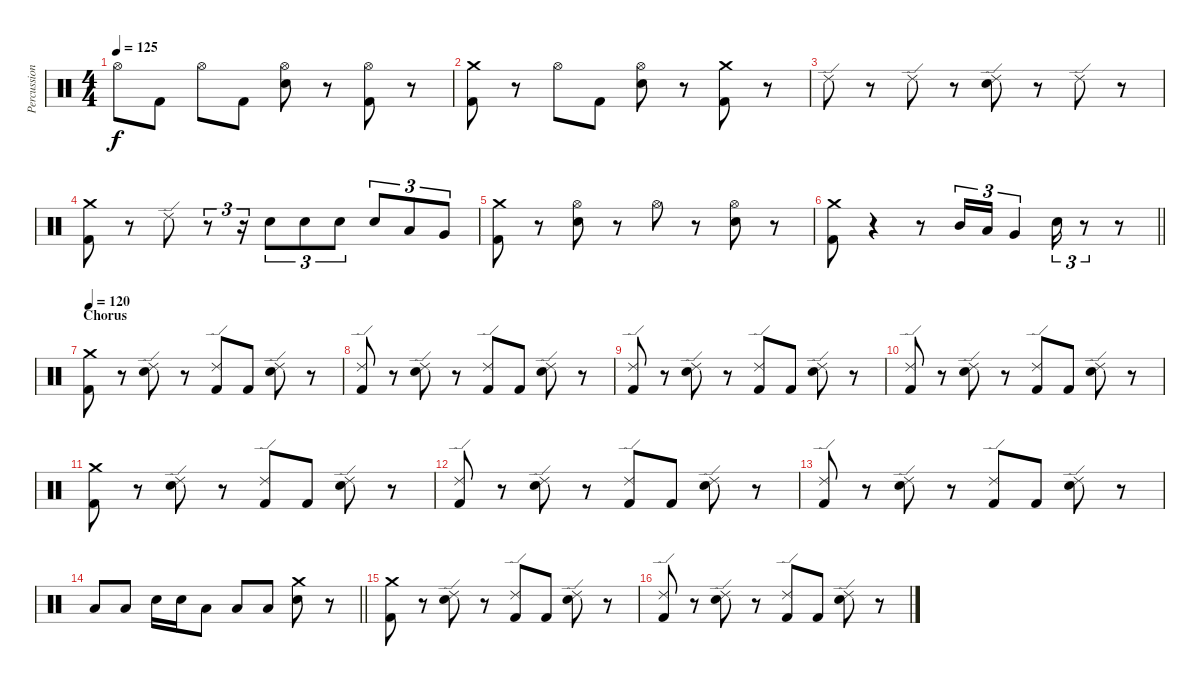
\track ("Percussion" "Percussion") {instrument percussion}
\staff {score}
\articulation defaults
\ts (4 4)
\tempo 125
\clef neutral
\ks c "Hi-Hat (open)".8{dy f} "Kick (hit) 2".8 "Hi-Hat (open)".8 "Kick (hit) 2".8
("Hi-Hat (open)" "Electric Snare (hit)").8 r.8 ("Hi-Hat (open)" "Kick (hit) 2").8 r.8 |
("Crash medium (hit)" "Kick (hit) 2").8 r.8 "Hi-Hat (open)".8 "Kick (hit) 2".8 ("Hi-Hat (open)" "Electric Snare (hit)").8 r.8 ("Crash medium (hit)" "Kick (hit) 2").8 r.8 |
"Ride (edge) 2".8 r.8 "Ride (edge) 2".8 r.8 ("Ride (edge) 2" "Electric Snare (hit)").8 r.8 "Ride (edge) 2".8 r.8 |
("Crash medium (hit)" "Kick (hit) 2").8 r.8 "Ride (edge) 2".8 r.8{tu (3 2)} r.16{tu (3 2)} "Electric Snare (hit)".8{tu (3 2)} "Electric Snare (hit)".8{tu (3 2)} "Electric Snare (hit)".8{tu (3 2)} "Electric Snare (hit)".8{tu (3 2)} "Low Tom (hit)".8{tu (3 2)} "Very Low Tom (hit)".8{tu (3 2)} |
("Crash medium (hit)" "Kick (hit) 2").8 r.8 ("Hi-Hat (open)" "Electric Snare (hit)").8 r.8 "Hi-Hat (open)".8 r.8 ("Hi-Hat (open)" "Electric Snare (hit)").8 r.8 |
\barLineRight lightlight
("Kick (hit) 2" "Crash medium (hit)").8 r.4 r.8 "Mid Tom (hit)".16{tu (3 2)} "Low Tom (hit)".16{tu (3 2)} "Very Low Tom (hit)".4{tu (3 2)} "Electric Snare (hit)".16{tu (3 2)} r.8{tu (3 2)} r.8 |
\section ("" "Chorus")
\tempo 120
("Crash medium (hit)" "Kick (hit) 2").8 r.8 ("Ride (edge) 2" "Electric Snare (hit)").8 r.8 ("Ride (edge) 2" "Kick (hit) 2").8 "Kick (hit) 2".8 ("Ride (edge) 2" "Electric Snare (hit)").8 r.8 |
("Ride (edge) 2" "Kick (hit) 2").8 r.8 ("Ride (edge) 2" "Electric Snare (hit)").8 r.8 ("Ride (edge) 2" "Kick (hit) 2").8 "Kick (hit) 2".8 ("Ride (edge) 2" "Electric Snare (hit)").8 r.8 |
("Ride (edge) 2" "Kick (hit) 2").8 r.8 ("Ride (edge) 2" "Electric Snare (hit)").8 r.8 ("Ride (edge) 2" "Kick (hit) 2").8 "Kick (hit) 2".8 ("Ride (edge) 2" "Electric Snare (hit)").8 r.8 |
("Ride (edge) 2" "Kick (hit) 2").8 r.8 ("Ride (edge) 2" "Electric Snare (hit)").8 r.8 ("Ride (edge) 2" "Kick (hit) 2").8 "Kick (hit) 2".8 ("Ride (edge) 2" "Electric Snare (hit)").8 r.8 |
("Crash medium (hit)" "Kick (hit) 2").8 r.8 ("Ride (edge) 2" "Electric Snare (hit)").8 r.8 ("Ride (edge) 2" "Kick (hit) 2").8 "Kick (hit) 2".8 ("Ride (edge) 2" "Electric Snare (hit)").8 r.8 |
("Ride (edge) 2" "Kick (hit) 2").8 r.8 ("Ride (edge) 2" "Electric Snare (hit)").8 r.8 ("Ride (edge) 2" "Kick (hit) 2").8 "Kick (hit) 2".8 ("Ride (edge) 2" "Electric Snare (hit)").8 r.8 |
("Ride (edge) 2" "Kick (hit) 2").8 r.8 ("Ride (edge) 2" "Electric Snare (hit)").8 r.8 ("Ride (edge) 2" "Kick (hit) 2").8 "Kick (hit) 2".8 ("Ride (edge) 2" "Electric Snare (hit)").8 r.8 |
\barLineRight lightlight "Low Tom (hit)".8 "Low Tom (hit)".8 "Electric Snare (hit)".16 "Electric Snare (hit)".16 "Low Tom (hit)".8 "Low Tom (hit)".8 "Low Tom (hit)".8
("Crash medium (hit)" "Electric Snare (hit)").8 r.8 |
("Crash medium (hit)" "Kick (hit) 2").8 r.8 ("Ride (edge) 2" "Electric Snare (hit)").8 r.8 ("Ride (edge) 2" "Kick (hit) 2").8 "Kick (hit) 2".8 ("Ride (edge) 2" "Electric Snare (hit)").8 r.8 |
("Ride (edge) 2" "Kick (hit) 2").8 r.8 ("Ride (edge) 2" "Electric Snare (hit)").8 r.8 ("Ride (edge) 2" "Kick (hit) 2").8 "Kick (hit) 2".8 ("Ride (edge) 2" "Electric Snare (hit)").8 r.8
